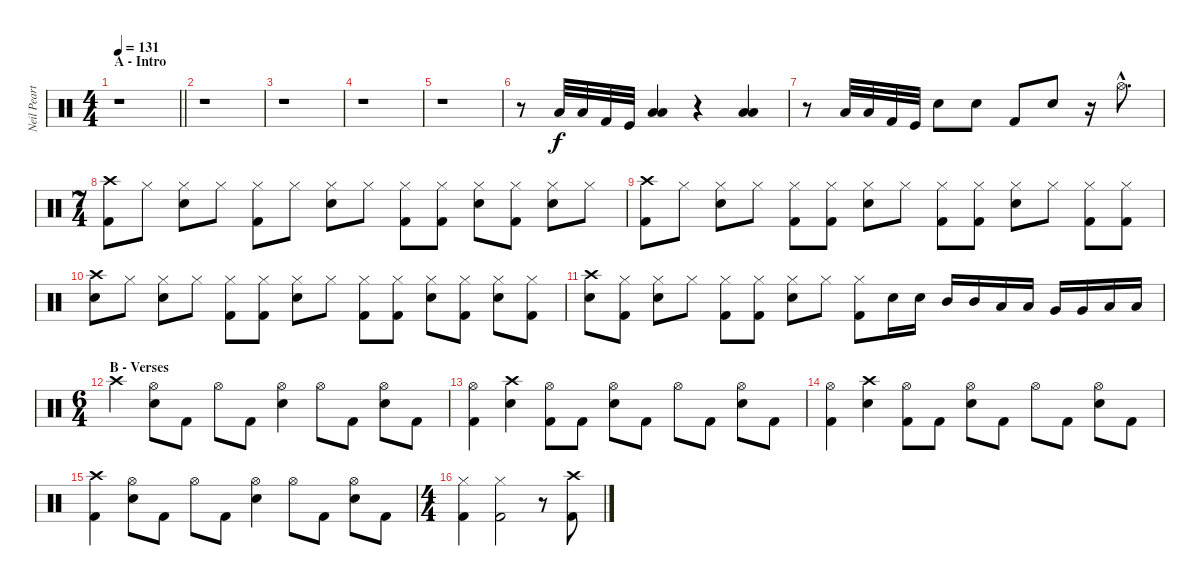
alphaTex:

\track ("Neil Peart" "Neil Peart") {instrument percussion}
\staff {score}
\articulation defaults
\ts (4 4)
\section ("" "A - Intro")
\tempo 131
\clef neutral
\barLineRight lightlight
\ks c
r.1{dy f} |
r.1 |
r.1 |
r.1 |
r.1 |
r.8 "Low Floor Tom (hit)".32 "Low Floor Tom (hit)".32 "Kick (hit) 2".32 "Kick (hit)".32 ("Low Floor Tom (hit)" "Low Floor Tom (hit)").4{bd 240} r.4 ("Low Floor Tom (hit)" "Low Floor Tom (hit)").4{bd 240} |
r.8 "Low Floor Tom (hit)".32 "Low Floor Tom (hit)".32 "Kick (hit) 2".32 "Kick (hit)".32 "Electric Snare (hit)".8 "Electric Snare (hit)".8 "Kick (hit) 2".8 "Electric Snare (hit)".8 r.16 "Hi-Hat (open)"{hac}.8{d} |
\ts (7 4)
("Crash high (hit)" "Kick (hit) 2").8 "Hi-Hat (closed)".8 ("Hi-Hat (closed)" "Electric Snare (hit)").8 "Hi-Hat (closed)".8 ("Hi-Hat (closed)" "Kick (hit) 2").8 "Hi-Hat (closed)".8 ("Hi-Hat (closed)" "Electric Snare (hit)").8 "Hi-Hat (closed)".8 ("Hi-Hat (closed)" "Kick (hit) 2").8 ("Hi-Hat (closed)" "Kick (hit) 2").8 ("Hi-Hat (closed)" "Electric Snare (hit)").8 ("Hi-Hat (closed)" "Kick (hit) 2").8 ("Hi-Hat (closed)" "Electric Snare (hit)").8 "Hi-Hat (closed)".8 |
("Crash high (hit)" "Kick (hit) 2").8 "Hi-Hat (closed)".8 ("Hi-Hat (closed)" "Electric Snare (hit)").8 "Hi-Hat (closed)".8 ("Hi-Hat (closed)" "Kick (hit) 2").8 ("Hi-Hat (closed)" "Kick (hit) 2").8 ("Hi-Hat (closed)" "Electric Snare (hit)").8 "Hi-Hat (closed)".8 ("Hi-Hat (closed)" "Kick (hit) 2").8 ("Hi-Hat (closed)" "Kick (hit) 2").8 ("Hi-Hat (closed)" "Electric Snare (hit)").8 "Hi-Hat (closed)".8 ("Hi-Hat (closed)" "Kick (hit) 2").8 ("Hi-Hat (closed)" "Kick (hit) 2").8 |
("Crash high (hit)" "Electric Snare (hit)").8 "Hi-Hat (closed)".8 ("Hi-Hat (closed)" "Electric Snare (hit)").8 "Hi-Hat (closed)".8 ("Hi-Hat (closed)" "Kick (hit) 2").8 ("Hi-Hat (closed)" "Kick (hit) 2").8 ("Hi-Hat (closed)" "Electric Snare (hit)").8 "Hi-Hat (closed)".8 ("Hi-Hat (closed)" "Kick (hit) 2").8 ("Hi-Hat (closed)" "Kick (hit) 2").8 ("Hi-Hat (closed)" "Electric Snare (hit)").8 ("Hi-Hat (closed)" "Kick (hit) 2").8 ("Hi-Hat (closed)" "Electric Snare (hit)").8 ("Hi-Hat (closed)" "Kick (hit) 2").8 |
("Crash high (hit)" "Electric Snare (hit)").8 ("Hi-Hat (closed)" "Kick (hit) 2").8 ("Hi-Hat (closed)" "Electric Snare (hit)").8 "Hi-Hat (closed)".8 ("Hi-Hat (closed)" "Kick (hit) 2").8 ("Hi-Hat (closed)" "Kick (hit) 2").8 ("Hi-Hat (closed)" "Electric Snare (hit)").8 "Hi-Hat (closed)".8 ("Hi-Hat (closed)" "Kick (hit) 2").8 "Electric Snare (hit)".16 "Electric Snare (hit)".16 "Mid Tom (hit)".16 "Mid Tom (hit)".16 "Low Tom (hit)".16 "Low Tom (hit)".16 "Very Low Tom (hit)".16 "Very Low Tom (hit)".16 "Low Floor Tom (hit)".16 "Low Floor Tom (hit)".16 |
\ts (6 4)
\section ("" "B - Verses")
"Crash high (hit)".4 ("Hi-Hat (open)" "Electric Snare (hit)").8 "Kick (hit) 2".8 "Hi-Hat (open)".8 "Kick (hit) 2".8 ("Hi-Hat (open)" "Electric Snare (hit)").4 "Hi-Hat (open)".8 "Kick (hit) 2".8 ("Hi-Hat (open)" "Electric Snare (hit)").8 "Kick (hit) 2".8 |
("Hi-Hat (open)" "Kick (hit) 2").4 ("Crash high (hit)" "Electric Snare (hit)").4 ("Hi-Hat (open)" "Kick (hit) 2").8 "Kick (hit) 2".8 ("Hi-Hat (open)" "Electric Snare (hit)").8 "Kick (hit) 2".8 "Hi-Hat (open)".8 "Kick (hit) 2".8 ("Hi-Hat (open)" "Electric Snare (hit)").8 "Kick (hit) 2".8 |
("Hi-Hat (open)" "Kick (hit) 2").4 ("Crash high (hit)" "Electric Snare (hit)").4 ("Hi-Hat (open)" "Kick (hit) 2").8 "Kick (hit) 2".8 ("Hi-Hat (open)" "Electric Snare (hit)").8 "Kick (hit) 2".8 "Hi-Hat (open)".8 "Kick (hit) 2".8 ("Hi-Hat (open)" "Electric Snare (hit)").8 "Kick (hit) 2".8 |
("Crash high (hit)" "Kick (hit) 2").4 ("Hi-Hat (open)" "Electric Snare (hit)").8 "Kick (hit) 2".8 "Hi-Hat (open)".8 "Kick (hit) 2".8 ("Hi-Hat (open)" "Electric Snare (hit)").4 "Hi-Hat (open)".8 "Kick (hit) 2".8 ("Hi-Hat (open)" "Electric Snare (hit)").8 "Kick (hit) 2".8 |
\ts (4 4)
("Hi-Hat (closed)" "Kick (hit) 2").4 ("Hi-Hat (closed)" "Kick (hit) 2").2 r.8 ("Crash high (hit)" "Kick (hit) 2").8
